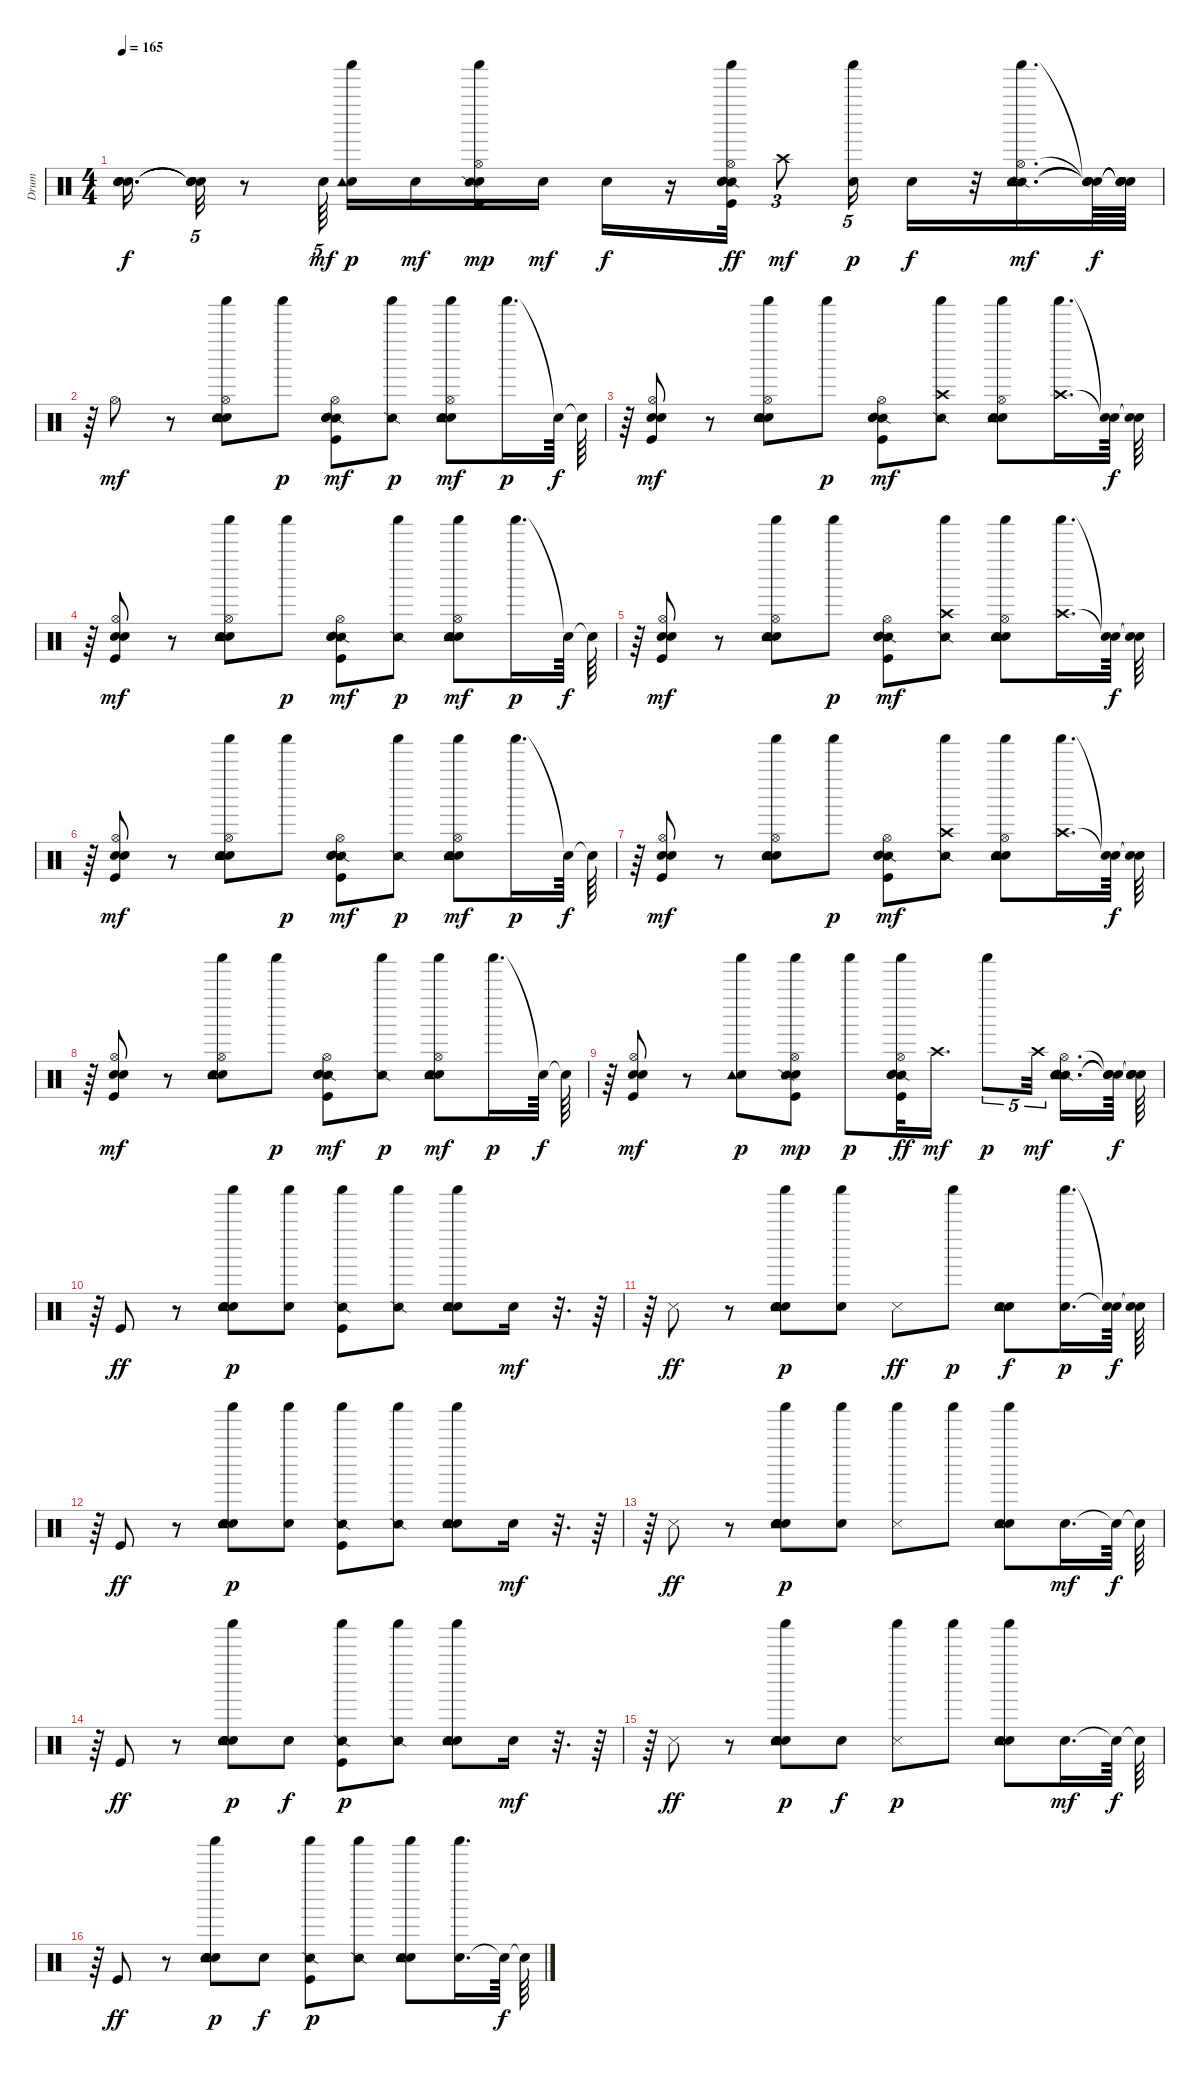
\track ("Drum" "Drum") {instrument percussion}
\staff {score}
\articulation defaults
\ts (4 4)
\tempo 165
\clef neutral
\ks c
("Snare (hit)"{t} "Snare (hit)"{t} "Snare (hit)"{t} "Snare (hit)"{t}).16{d dy f} ("Snare (hit)"{t} "Snare (hit)"{t} "Snare (hit)"{t} "Snare (hit)"{t}).32{tu (5 4)} r.8 "Electric Snare (hit)".64{tu (5 4) dy mf} ("Shaker (hit)" "Hand Clap (hit)" "Tambourine (hit)").16{dy p} "Electric Snare (hit)".16{dy mf} ("Shaker (hit)" "Hi-Hat (open)" "Electric Snare (hit)" "Kick (hit)" "Snare (side stick) 2").16{dy mp} "Electric Snare (hit)".16{dy mf} "Electric Snare (hit)".16{dy f} r.16 ("Shaker (hit)" "Snare (side stick) 2" "Hi-Hat (open)" "Electric Snare (hit)" "Hand Clap (hit)" "Kick (hit)").32{dy ff} "Crash high (hit)".8{tu (3 2) dy mf} ("Electric Snare (hit)" "Shaker (hit)").16{tu (5 4) dy p} "Electric Snare (hit)".16{dy f} r.32 ("Shaker (hit)" "Snare (side stick) 2" "Hi-Hat (open)" "Electric Snare (hit)" "Tambourine (hit)").16{d dy mf} ("Snare (hit)"{t} "Snare (hit)"{t} "Snare (hit)"{t} "Snare (hit)"{t} "Snare (hit)"{t}).64{dy f} ("Snare (hit)"{t} "Snare (hit)"{t} "Snare (hit)"{t} "Snare (hit)"{t} "Snare (hit)"{t}).64 |
r.64 "Hi-Hat (open)".8{dy mf} r.8 ("Hand Clap (hit)" "Electric Snare (hit)" "Shaker (hit)" "Tambourine (hit)" "Hi-Hat (open)").8 "Shaker (hit)".8{dy p} ("Snare (side stick) 2" "Kick (hit)" "Hand Clap (hit)" "Electric Snare (hit)" "Hi-Hat (open)").8{dy mf} ("Snare (side stick) 2" "Shaker (hit)").8{dy p} ("Hand Clap (hit)" "Tambourine (hit)" "Electric Snare (hit)" "Shaker (hit)" "Hi-Hat (open)").8{dy mf} "Shaker (hit)".16{d dy p} "Snare (hit)"{t}.64{dy f} "Snare (hit)"{t}.64 |
r.64 ("Kick (hit)" "Hand Clap (hit)" "Electric Snare (hit)" "Hi-Hat (open)").8{dy mf} r.8 ("Hand Clap (hit)" "Electric Snare (hit)" "Shaker (hit)" "Tambourine (hit)" "Hi-Hat (open)").8 "Shaker (hit)".8{dy p} ("Snare (side stick) 2" "Kick (hit)" "Hand Clap (hit)" "Electric Snare (hit)" "Hi-Hat (open)").8{dy mf} ("Snare (side stick) 2" "Shaker (hit)" "Crash high (hit)").8 ("Hand Clap (hit)" "Tambourine (hit)" "Electric Snare (hit)" "Shaker (hit)" "Hi-Hat (open)").8 ("Shaker (hit)" "Crash high (hit)").16{d} ("Snare (hit)"{t} "Snare (hit)"{t}).64{dy f} ("Snare (hit)"{t} "Snare (hit)"{t}).64 |
r.64 ("Kick (hit)" "Hand Clap (hit)" "Electric Snare (hit)" "Hi-Hat (open)").8{dy mf} r.8 ("Hand Clap (hit)" "Electric Snare (hit)" "Shaker (hit)" "Tambourine (hit)" "Hi-Hat (open)").8 "Shaker (hit)".8{dy p} ("Snare (side stick) 2" "Kick (hit)" "Hand Clap (hit)" "Electric Snare (hit)" "Hi-Hat (open)").8{dy mf} ("Snare (side stick) 2" "Shaker (hit)").8{dy p} ("Hand Clap (hit)" "Tambourine (hit)" "Electric Snare (hit)" "Shaker (hit)" "Hi-Hat (open)").8{dy mf} "Shaker (hit)".16{d dy p} "Snare (hit)"{t}.64{dy f} "Snare (hit)"{t}.64 |
r.64 ("Kick (hit)" "Hand Clap (hit)" "Electric Snare (hit)" "Hi-Hat (open)").8{dy mf} r.8 ("Hand Clap (hit)" "Electric Snare (hit)" "Shaker (hit)" "Tambourine (hit)" "Hi-Hat (open)").8 "Shaker (hit)".8{dy p} ("Snare (side stick) 2" "Kick (hit)" "Hand Clap (hit)" "Electric Snare (hit)" "Hi-Hat (open)").8{dy mf} ("Snare (side stick) 2" "Shaker (hit)" "Crash high (hit)").8 ("Hand Clap (hit)" "Tambourine (hit)" "Electric Snare (hit)" "Shaker (hit)" "Hi-Hat (open)").8 ("Shaker (hit)" "Crash high (hit)").16{d} ("Snare (hit)"{t} "Snare (hit)"{t}).64{dy f} ("Snare (hit)"{t} "Snare (hit)"{t}).64 |
r.64 ("Kick (hit)" "Hand Clap (hit)" "Electric Snare (hit)" "Hi-Hat (open)").8{dy mf} r.8 ("Hand Clap (hit)" "Electric Snare (hit)" "Shaker (hit)" "Tambourine (hit)" "Hi-Hat (open)").8 "Shaker (hit)".8{dy p} ("Snare (side stick) 2" "Kick (hit)" "Hand Clap (hit)" "Electric Snare (hit)" "Hi-Hat (open)").8{dy mf} ("Snare (side stick) 2" "Shaker (hit)").8{dy p} ("Hand Clap (hit)" "Tambourine (hit)" "Electric Snare (hit)" "Shaker (hit)" "Hi-Hat (open)").8{dy mf} "Shaker (hit)".16{d dy p} "Snare (hit)"{t}.64{dy f} "Snare (hit)"{t}.64 |
r.64 ("Kick (hit)" "Hand Clap (hit)" "Electric Snare (hit)" "Hi-Hat (open)").8{dy mf} r.8 ("Hand Clap (hit)" "Electric Snare (hit)" "Shaker (hit)" "Tambourine (hit)" "Hi-Hat (open)").8 "Shaker (hit)".8{dy p} ("Snare (side stick) 2" "Kick (hit)" "Hand Clap (hit)" "Electric Snare (hit)" "Hi-Hat (open)").8{dy mf} ("Snare (side stick) 2" "Shaker (hit)" "Crash high (hit)").8 ("Hand Clap (hit)" "Tambourine (hit)" "Electric Snare (hit)" "Shaker (hit)" "Hi-Hat (open)").8 ("Shaker (hit)" "Crash high (hit)").16{d} ("Snare (hit)"{t} "Snare (hit)"{t}).64{dy f} ("Snare (hit)"{t} "Snare (hit)"{t}).64 |
r.64 ("Kick (hit)" "Hand Clap (hit)" "Electric Snare (hit)" "Hi-Hat (open)").8{dy mf} r.8 ("Hand Clap (hit)" "Electric Snare (hit)" "Shaker (hit)" "Tambourine (hit)" "Hi-Hat (open)").8 "Shaker (hit)".8{dy p} ("Snare (side stick) 2" "Kick (hit)" "Hand Clap (hit)" "Electric Snare (hit)" "Hi-Hat (open)").8{dy mf} ("Snare (side stick) 2" "Shaker (hit)").8{dy p} ("Hand Clap (hit)" "Tambourine (hit)" "Electric Snare (hit)" "Shaker (hit)" "Hi-Hat (open)").8{dy mf} "Shaker (hit)".16{d dy p} "Snare (hit)"{t}.64{dy f} "Snare (hit)"{t}.64 |
r.64 ("Kick (hit)" "Hand Clap (hit)" "Electric Snare (hit)" "Hi-Hat (open)").8{dy mf} r.8 ("Shaker (hit)" "Hand Clap (hit)" "Tambourine (hit)").8{dy p} ("Shaker (hit)" "Hi-Hat (open)" "Electric Snare (hit)" "Kick (hit)" "Snare (side stick) 2").8{dy mp} "Shaker (hit)".8{dy p} ("Shaker (hit)" "Snare (side stick) 2" "Hi-Hat (open)" "Electric Snare (hit)" "Hand Clap (hit)" "Kick (hit)").32{dy ff} "Crash high (hit)".16{d dy mf} "Shaker (hit)".8{tu (5 4) dy p} "Crash high (hit)".32{tu (5 4) dy mf} ("Snare (side stick) 2" "Hi-Hat (open)" "Electric Snare (hit)" "Tambourine (hit)" "Hand Clap (hit)").16{d} ("Snare (hit)"{t} "Snare (hit)"{t} "Snare (hit)"{t} "Snare (hit)"{t}).64{dy f} ("Snare (hit)"{t} "Snare (hit)"{t} "Snare (hit)"{t} "Snare (hit)"{t}).64 |
r.64 "Kick (hit)".8{dy ff} r.8 ("Hand Clap (hit)" "Metronome (bell)" "Tambourine (hit)" "Shaker (hit)" "Electric Snare (hit)").8{dy p} ("Hand Clap (hit)" "Shaker (hit)").8 ("Snare (side stick) 2" "Kick (hit)" "Shaker (hit)").8 ("Snare (side stick) 2" "Shaker (hit)").8 ("Hand Clap (hit)" "Tambourine (hit)" "Shaker (hit)" "Electric Snare (hit)").8 "Metronome (bell)".16{dy mf} r.32{d} r.64 |
r.64 "Metronome (hit)".8{dy ff} r.8 ("Hand Clap (hit)" "Metronome (bell)" "Tambourine (hit)" "Shaker (hit)" "Electric Snare (hit)").8{dy p} ("Hand Clap (hit)" "Shaker (hit)").8 "Metronome (hit)".8{dy ff} "Shaker (hit)".8{dy p} ("Hand Clap (hit)" "Tambourine (hit)" "Electric Snare (hit)").8{dy f} ("Metronome (bell)" "Shaker (hit)").16{d dy p} ("Snare (hit)"{t} "Snare (hit)"{t}).64{dy f} ("Snare (hit)"{t} "Snare (hit)"{t}).64 |
r.64 "Kick (hit)".8{dy ff} r.8 ("Hand Clap (hit)" "Metronome (bell)" "Tambourine (hit)" "Shaker (hit)" "Electric Snare (hit)").8{dy p} ("Hand Clap (hit)" "Shaker (hit)").8 ("Snare (side stick) 2" "Kick (hit)" "Shaker (hit)").8 ("Snare (side stick) 2" "Shaker (hit)").8 ("Hand Clap (hit)" "Tambourine (hit)" "Shaker (hit)" "Electric Snare (hit)").8 "Metronome (bell)".16{dy mf} r.32{d} r.64 |
r.64 "Metronome (hit)".8{dy ff} r.8 ("Hand Clap (hit)" "Metronome (bell)" "Tambourine (hit)" "Shaker (hit)" "Electric Snare (hit)").8{dy p} ("Hand Clap (hit)" "Shaker (hit)").8 ("Metronome (hit)" "Shaker (hit)").8 "Shaker (hit)".8 ("Hand Clap (hit)" "Tambourine (hit)" "Shaker (hit)" "Electric Snare (hit)").8 "Metronome (bell)".16{d dy mf} "Snare (hit)"{t}.64{dy f} "Snare (hit)"{t}.64 |
r.64 "Kick (hit)".8{dy ff} r.8 ("Hand Clap (hit)" "Metronome (bell)" "Tambourine (hit)" "Shaker (hit)" "Electric Snare (hit)").8{dy p} "Hand Clap (hit)".8{dy f} ("Snare (side stick) 2" "Kick (hit)" "Shaker (hit)").8{dy p} ("Snare (side stick) 2" "Shaker (hit)").8 ("Hand Clap (hit)" "Tambourine (hit)" "Shaker (hit)" "Electric Snare (hit)").8 "Metronome (bell)".16{dy mf} r.32{d} r.64 |
r.64 "Metronome (hit)".8{dy ff} r.8 ("Hand Clap (hit)" "Metronome (bell)" "Tambourine (hit)" "Shaker (hit)" "Electric Snare (hit)").8{dy p} "Hand Clap (hit)".8{dy f} ("Metronome (hit)" "Shaker (hit)").8{dy p} "Shaker (hit)".8 ("Hand Clap (hit)" "Tambourine (hit)" "Shaker (hit)" "Electric Snare (hit)").8 "Metronome (bell)".16{d dy mf} "Snare (hit)"{t}.64{dy f} "Snare (hit)"{t}.64 |
r.64 "Kick (hit)".8{dy ff} r.8 ("Hand Clap (hit)" "Metronome (bell)" "Tambourine (hit)" "Shaker (hit)" "Electric Snare (hit)").8{dy p} "Hand Clap (hit)".8{dy f} ("Snare (side stick) 2" "Kick (hit)" "Shaker (hit)").8{dy p} ("Snare (side stick) 2" "Shaker (hit)").8 ("Hand Clap (hit)" "Tambourine (hit)" "Shaker (hit)" "Electric Snare (hit)").8 ("Metronome (bell)" "Shaker (hit)").16{d} "Snare (hit)"{t}.64{dy f} "Snare (hit)"{t}.64
